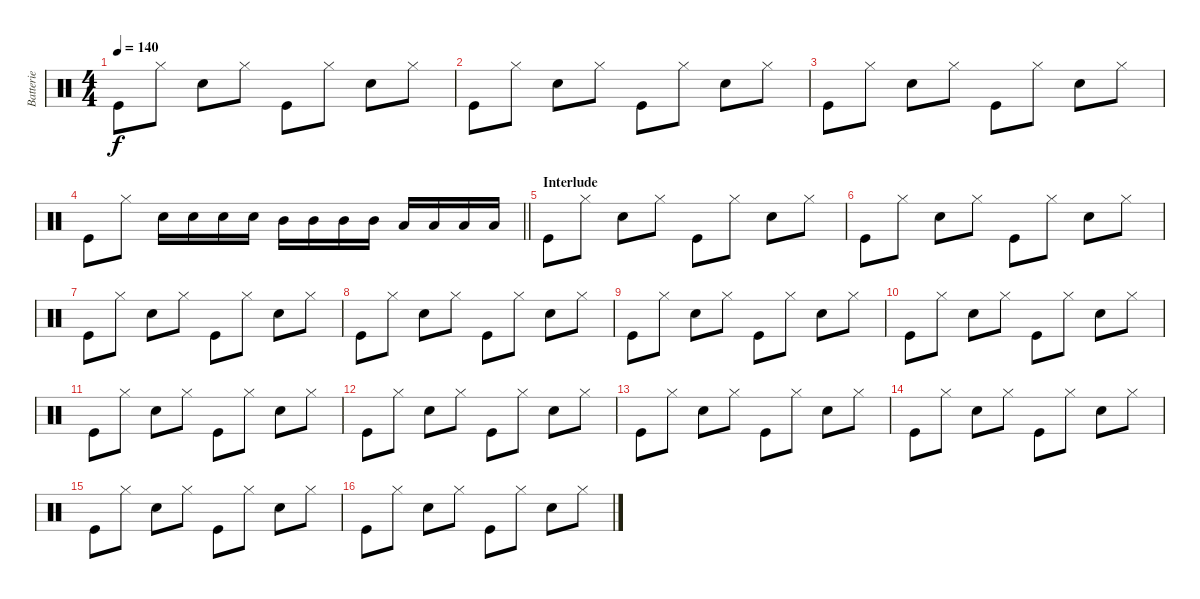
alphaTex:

\track ("Batterie" "Batterie") {instrument percussion}
\staff {score}
\articulation defaults
\ts (4 4)
\tempo 140
\clef neutral
\ks c "Kick (hit)".8{dy f} "Hi-Hat (closed)".8 "Snare (hit) 2".8 "Hi-Hat (closed)".8 "Kick (hit)".8 "Hi-Hat (closed)".8 "Snare (hit) 2".8 "Hi-Hat (closed)".8
|
"Kick (hit)".8 "Hi-Hat (closed)".8 "Snare (hit) 2".8 "Hi-Hat (closed)".8 "Kick (hit)".8 "Hi-Hat (closed)".8 "Snare (hit) 2".8 "Hi-Hat (closed)".8 |
"Kick (hit)".8 "Hi-Hat (closed)".8 "Snare (hit) 2".8 "Hi-Hat (closed)".8 "Kick (hit)".8 "Hi-Hat (closed)".8 "Snare (hit) 2".8 "Hi-Hat (closed)".8 |
\barLineRight lightlight "Kick (hit)".8 "Hi-Hat (closed)".8 "Snare (hit) 2".16 "Snare (hit) 2".16 "Snare (hit) 2".16 "Snare (hit) 2".16 "Mid Tom (hit)".16 "Mid Tom (hit)".16 "Mid Tom (hit)".16 "Mid Tom (hit)".16 "Low Tom (hit)".16 "Low Tom (hit)".16 "Low Tom (hit)".16 "Low Tom (hit)".16
|
\section ("" "Interlude")
"Kick (hit)".8 "Hi-Hat (closed)".8 "Snare (hit) 2".8 "Hi-Hat (closed)".8 "Kick (hit)".8 "Hi-Hat (closed)".8 "Snare (hit) 2".8 "Hi-Hat (closed)".8 |
"Kick (hit)".8 "Hi-Hat (closed)".8 "Snare (hit) 2".8 "Hi-Hat (closed)".8 "Kick (hit)".8 "Hi-Hat (closed)".8 "Snare (hit) 2".8 "Hi-Hat (closed)".8 |
"Kick (hit)".8 "Hi-Hat (closed)".8 "Snare (hit) 2".8 "Hi-Hat (closed)".8 "Kick (hit)".8 "Hi-Hat (closed)".8 "Snare (hit) 2".8 "Hi-Hat (closed)".8 |
"Kick (hit)".8 "Hi-Hat (closed)".8 "Snare (hit) 2".8 "Hi-Hat (closed)".8 "Kick (hit)".8 "Hi-Hat (closed)".8 "Snare (hit) 2".8 "Hi-Hat (closed)".8 |
"Kick (hit)".8 "Hi-Hat (closed)".8 "Snare (hit) 2".8 "Hi-Hat (closed)".8 "Kick (hit)".8 "Hi-Hat (closed)".8 "Snare (hit) 2".8 "Hi-Hat (closed)".8 |
"Kick (hit)".8 "Hi-Hat (closed)".8 "Snare (hit) 2".8 "Hi-Hat (closed)".8 "Kick (hit)".8 "Hi-Hat (closed)".8 "Snare (hit) 2".8 "Hi-Hat (closed)".8 |
"Kick (hit)".8 "Hi-Hat (closed)".8 "Snare (hit) 2".8 "Hi-Hat (closed)".8 "Kick (hit)".8 "Hi-Hat (closed)".8 "Snare (hit) 2".8 "Hi-Hat (closed)".8 |
"Kick (hit)".8 "Hi-Hat (closed)".8 "Snare (hit) 2".8 "Hi-Hat (closed)".8 "Kick (hit)".8 "Hi-Hat (closed)".8 "Snare (hit) 2".8 "Hi-Hat (closed)".8 |
"Kick (hit)".8 "Hi-Hat (closed)".8 "Snare (hit) 2".8 "Hi-Hat (closed)".8 "Kick (hit)".8 "Hi-Hat (closed)".8 "Snare (hit) 2".8 "Hi-Hat (closed)".8 |
"Kick (hit)".8 "Hi-Hat (closed)".8 "Snare (hit) 2".8 "Hi-Hat (closed)".8 "Kick (hit)".8 "Hi-Hat (closed)".8 "Snare (hit) 2".8 "Hi-Hat (closed)".8 |
"Kick (hit)".8 "Hi-Hat (closed)".8 "Snare (hit) 2".8 "Hi-Hat (closed)".8 "Kick (hit)".8 "Hi-Hat (closed)".8 "Snare (hit) 2".8 "Hi-Hat (closed)".8 |
"Kick (hit)".8 "Hi-Hat (closed)".8 "Snare (hit) 2".8 "Hi-Hat (closed)".8 "Kick (hit)".8 "Hi-Hat (closed)".8 "Snare (hit) 2".8 "Hi-Hat (closed)".8
